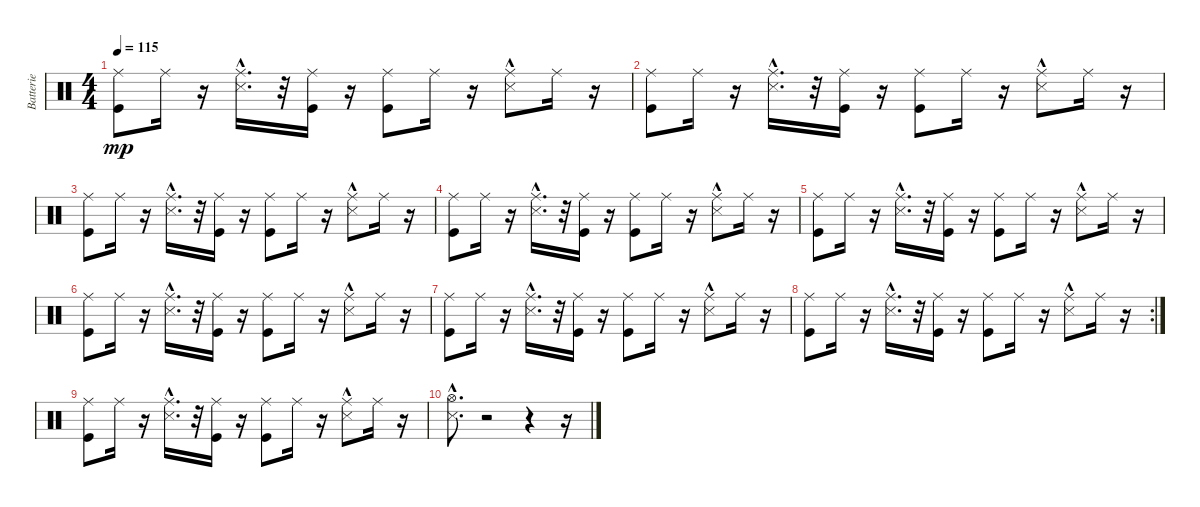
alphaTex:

\track ("Batterie" "Batterie") {instrument percussion}
\staff {score}
\articulation defaults
\ts (4 4)
\tempo 115
\clef neutral
\ks c
("Kick (hit)" "Ride (middle)").8{dy mp} "Ride (middle)".16 r.16 ("Snare (side stick) 3"{hac} "Ride (middle)").16{d} r.32 ("Ride (middle)" "Kick (hit)").16 r.16 ("Ride (middle)" "Kick (hit)").8 "Ride (middle)".16 r.16 ("Snare (side stick) 3"{hac} "Ride (middle)").8 "Ride (middle)".16 r.16 |
("Kick (hit)" "Ride (middle)").8 "Ride (middle)".16 r.16 ("Snare (side stick) 3"{hac} "Ride (middle)").16{d} r.32 ("Ride (middle)" "Kick (hit)").16 r.16 ("Ride (middle)" "Kick (hit)").8 "Ride (middle)".16 r.16 ("Snare (side stick) 3"{hac} "Ride (middle)").8 "Ride (middle)".16 r.16 |
("Kick (hit)" "Ride (middle)").8 "Ride (middle)".16 r.16 ("Snare (side stick) 3"{hac} "Ride (middle)").16{d} r.32 ("Ride (middle)" "Kick (hit)").16 r.16 ("Ride (middle)" "Kick (hit)").8 "Ride (middle)".16 r.16 ("Snare (side stick) 3"{hac} "Ride (middle)").8 "Ride (middle)".16 r.16 |
("Kick (hit)" "Ride (middle)").8 "Ride (middle)".16 r.16 ("Snare (side stick) 3"{hac} "Ride (middle)").16{d} r.32 ("Ride (middle)" "Kick (hit)").16 r.16 ("Ride (middle)" "Kick (hit)").8 "Ride (middle)".16 r.16 ("Snare (side stick) 3"{hac} "Ride (middle)").8 "Ride (middle)".16 r.16 |
("Kick (hit)" "Ride (middle)").8 "Ride (middle)".16 r.16 ("Snare (side stick) 3"{hac} "Ride (middle)").16{d} r.32 ("Ride (middle)" "Kick (hit)").16 r.16 ("Ride (middle)" "Kick (hit)").8 "Ride (middle)".16 r.16 ("Snare (side stick) 3"{hac} "Ride (middle)").8 "Ride (middle)".16 r.16 |
("Kick (hit)" "Ride (middle)").8 "Ride (middle)".16 r.16 ("Snare (side stick) 3"{hac} "Ride (middle)").16{d} r.32 ("Ride (middle)" "Kick (hit)").16 r.16 ("Ride (middle)" "Kick (hit)").8 "Ride (middle)".16 r.16 ("Snare (side stick) 3"{hac} "Ride (middle)").8 "Ride (middle)".16 r.16 |
("Kick (hit)" "Ride (middle)").8 "Ride (middle)".16 r.16 ("Snare (side stick) 3"{hac} "Ride (middle)").16{d} r.32 ("Ride (middle)" "Kick (hit)").16 r.16 ("Ride (middle)" "Kick (hit)").8 "Ride (middle)".16 r.16 ("Snare (side stick) 3"{hac} "Ride (middle)").8 "Ride (middle)".16 r.16 |
\rc 2
("Kick (hit)" "Ride (middle)").8 "Ride (middle)".16 r.16 ("Snare (side stick) 3"{hac} "Ride (middle)").16{d} r.32 ("Ride (middle)" "Kick (hit)").16 r.16 ("Ride (middle)" "Kick (hit)").8 "Ride (middle)".16 r.16 ("Snare (side stick) 3"{hac} "Ride (middle)").8 "Ride (middle)".16 r.16 |
("Kick (hit)" "Ride (middle)").8 "Ride (middle)".16 r.16 ("Snare (side stick) 3"{hac} "Ride (middle)").16{d} r.32 ("Ride (middle)" "Kick (hit)").16 r.16 ("Ride (middle)" "Kick (hit)").8 "Ride (middle)".16 r.16 ("Snare (side stick) 3"{hac} "Ride (middle)").8 "Ride (middle)".16 r.16 |
("Hi-Hat (open)" "Snare (side stick) 3"{hac}).8{d} r.2 r.4 r.16
